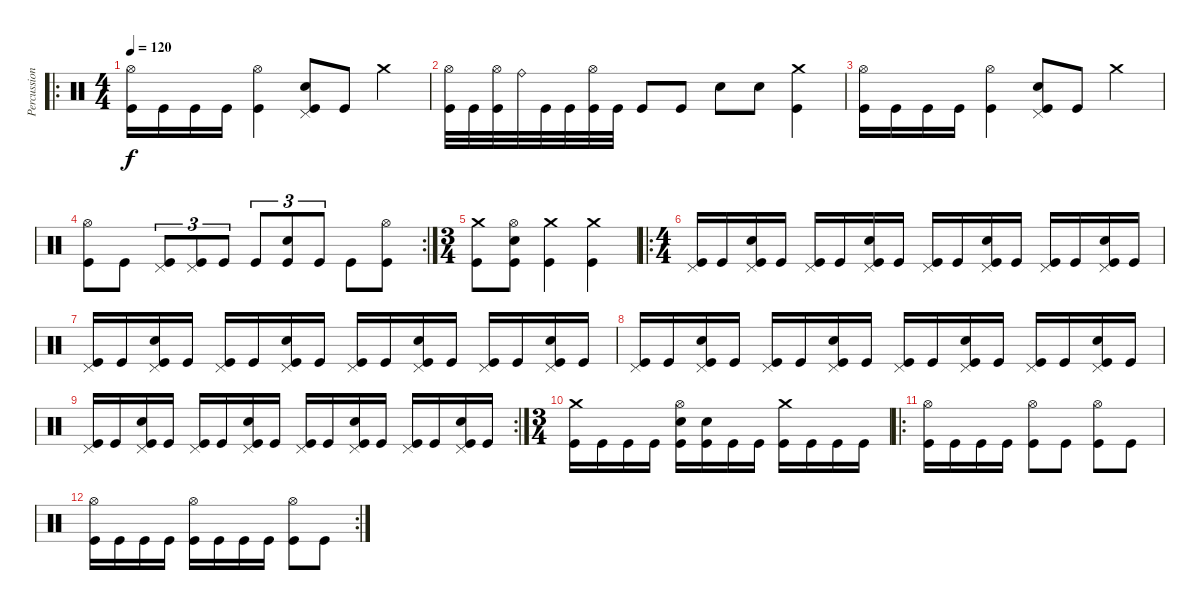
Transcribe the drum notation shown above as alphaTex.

\track ("Percussion" "Percussion") {instrument percussion}
\staff {score}
\articulation defaults
\ro
\ts (4 4)
\tempo 120
\clef neutral
\ks c
("Hi-Hat (open)" "Kick (hit)").16{dy f} "Kick (hit)".16 "Kick (hit)".16 "Kick (hit)".16 ("Hi-Hat (open)" "Kick (hit)").4 ("Pedal Hi-Hat (hit)" "Snare (hit) 2" "Kick (hit)").8 "Kick (hit)".8 "Crash medium (hit)".4 |
("Hi-Hat (open)" "Kick (hit)").32 "Kick (hit)".32 ("Hi-Hat (open)" "Kick (hit)").32 "Ride (bell)".32 "Kick (hit)".32 "Kick (hit)".32 ("Hi-Hat (open)" "Kick (hit)").32 "Kick (hit)".32 "Kick (hit)".8 "Kick (hit)".8 "Snare (hit) 2".8 "Snare (hit) 2".8 ("Crash medium (hit)" "Kick (hit)").4 |
("Hi-Hat (open)" "Kick (hit)").16 "Kick (hit)".16 "Kick (hit)".16 "Kick (hit)".16 ("Hi-Hat (open)" "Kick (hit)").4 ("Pedal Hi-Hat (hit)" "Snare (hit) 2" "Kick (hit)").8 "Kick (hit)".8 "Crash medium (hit)".4 |
\rc 2
("Hi-Hat (open)" "Kick (hit)").8 "Kick (hit)".8 ("Pedal Hi-Hat (hit)" "Kick (hit)").8{tu (3 2)} ("Pedal Hi-Hat (hit)" "Kick (hit)").8{tu (3 2)} "Kick (hit)".8{tu (3 2)} "Kick (hit)".8{tu (3 2)} ("Snare (hit) 2" "Kick (hit)").8{tu (3 2)} "Kick (hit)".8{tu (3 2)} "Kick (hit)".8 ("Hi-Hat (open)" "Kick (hit)").8 |
\ts (3 4)
("Crash medium (hit)" "Kick (hit)").8 ("Hi-Hat (open)" "Snare (hit) 2" "Kick (hit)").8 ("Crash medium (hit)" "Kick (hit)").4 ("Crash medium (hit)" "Kick (hit)").4 |
\ro
\ts (4 4)
("Pedal Hi-Hat (hit)" "Kick (hit)").16 "Kick (hit)".16 ("Pedal Hi-Hat (hit)" "Snare (hit) 2" "Kick (hit)").16 "Kick (hit)".16 ("Pedal Hi-Hat (hit)" "Kick (hit)").16 "Kick (hit)".16 ("Pedal Hi-Hat (hit)" "Snare (hit) 2" "Kick (hit)").16 "Kick (hit)".16 ("Pedal Hi-Hat (hit)" "Kick (hit)").16 "Kick (hit)".16 ("Pedal Hi-Hat (hit)" "Snare (hit) 2" "Kick (hit)").16 "Kick (hit)".16 ("Pedal Hi-Hat (hit)" "Kick (hit)").16 "Kick (hit)".16 ("Pedal Hi-Hat (hit)" "Snare (hit) 2" "Kick (hit)").16 "Kick (hit)".16 |
("Pedal Hi-Hat (hit)" "Kick (hit)").16 "Kick (hit)".16 ("Pedal Hi-Hat (hit)" "Snare (hit) 2" "Kick (hit)").16 "Kick (hit)".16 ("Pedal Hi-Hat (hit)" "Kick (hit)").16 "Kick (hit)".16 ("Pedal Hi-Hat (hit)" "Snare (hit) 2" "Kick (hit)").16 "Kick (hit)".16 ("Pedal Hi-Hat (hit)" "Kick (hit)").16 "Kick (hit)".16 ("Pedal Hi-Hat (hit)" "Snare (hit) 2" "Kick (hit)").16 "Kick (hit)".16 ("Pedal Hi-Hat (hit)" "Kick (hit)").16 "Kick (hit)".16 ("Pedal Hi-Hat (hit)" "Snare (hit) 2" "Kick (hit)").16 "Kick (hit)".16 |
("Pedal Hi-Hat (hit)" "Kick (hit)").16 "Kick (hit)".16 ("Pedal Hi-Hat (hit)" "Snare (hit) 2" "Kick (hit)").16 "Kick (hit)".16 ("Pedal Hi-Hat (hit)" "Kick (hit)").16 "Kick (hit)".16 ("Pedal Hi-Hat (hit)" "Snare (hit) 2" "Kick (hit)").16 "Kick (hit)".16 ("Pedal Hi-Hat (hit)" "Kick (hit)").16 "Kick (hit)".16 ("Pedal Hi-Hat (hit)" "Snare (hit) 2" "Kick (hit)").16 "Kick (hit)".16 ("Pedal Hi-Hat (hit)" "Kick (hit)").16 "Kick (hit)".16 ("Pedal Hi-Hat (hit)" "Snare (hit) 2" "Kick (hit)").16 "Kick (hit)".16 |
\rc 2
("Pedal Hi-Hat (hit)" "Kick (hit)").16 "Kick (hit)".16 ("Pedal Hi-Hat (hit)" "Snare (hit) 2" "Kick (hit)").16 "Kick (hit)".16 ("Pedal Hi-Hat (hit)" "Kick (hit)").16 "Kick (hit)".16 ("Pedal Hi-Hat (hit)" "Snare (hit) 2" "Kick (hit)").16 "Kick (hit)".16 ("Pedal Hi-Hat (hit)" "Kick (hit)").16 "Kick (hit)".16 ("Pedal Hi-Hat (hit)" "Snare (hit) 2" "Kick (hit)").16 "Kick (hit)".16 ("Pedal Hi-Hat (hit)" "Kick (hit)").16 "Kick (hit)".16 ("Pedal Hi-Hat (hit)" "Snare (hit) 2" "Kick (hit)").16 "Kick (hit)".16 |
\ts (3 4)
("Crash medium (hit)" "Kick (hit)").16 "Kick (hit)".16 "Kick (hit)".16 "Kick (hit)".16 ("Hi-Hat (open)" "Snare (hit) 2" "Kick (hit)").16 ("Snare (hit) 2" "Kick (hit)").16 "Kick (hit)".16 "Kick (hit)".16 ("Crash medium (hit)" "Kick (hit)").16 "Kick (hit)".16 "Kick (hit)".16 "Kick (hit)".16 |
\ro
("Hi-Hat (open)" "Kick (hit)").16 "Kick (hit)".16 "Kick (hit)".16 "Kick (hit)".16 ("Hi-Hat (open)" "Kick (hit)").8 "Kick (hit)".8 ("Hi-Hat (open)" "Kick (hit)").8 "Kick (hit)".8 |
\rc 2
("Hi-Hat (open)" "Kick (hit)").16 "Kick (hit)".16 "Kick (hit)".16 "Kick (hit)".16 ("Hi-Hat (open)" "Kick (hit)").16 "Kick (hit)".16 "Kick (hit)".16 "Kick (hit)".16 ("Hi-Hat (open)" "Kick (hit)").8 "Kick (hit)".8
